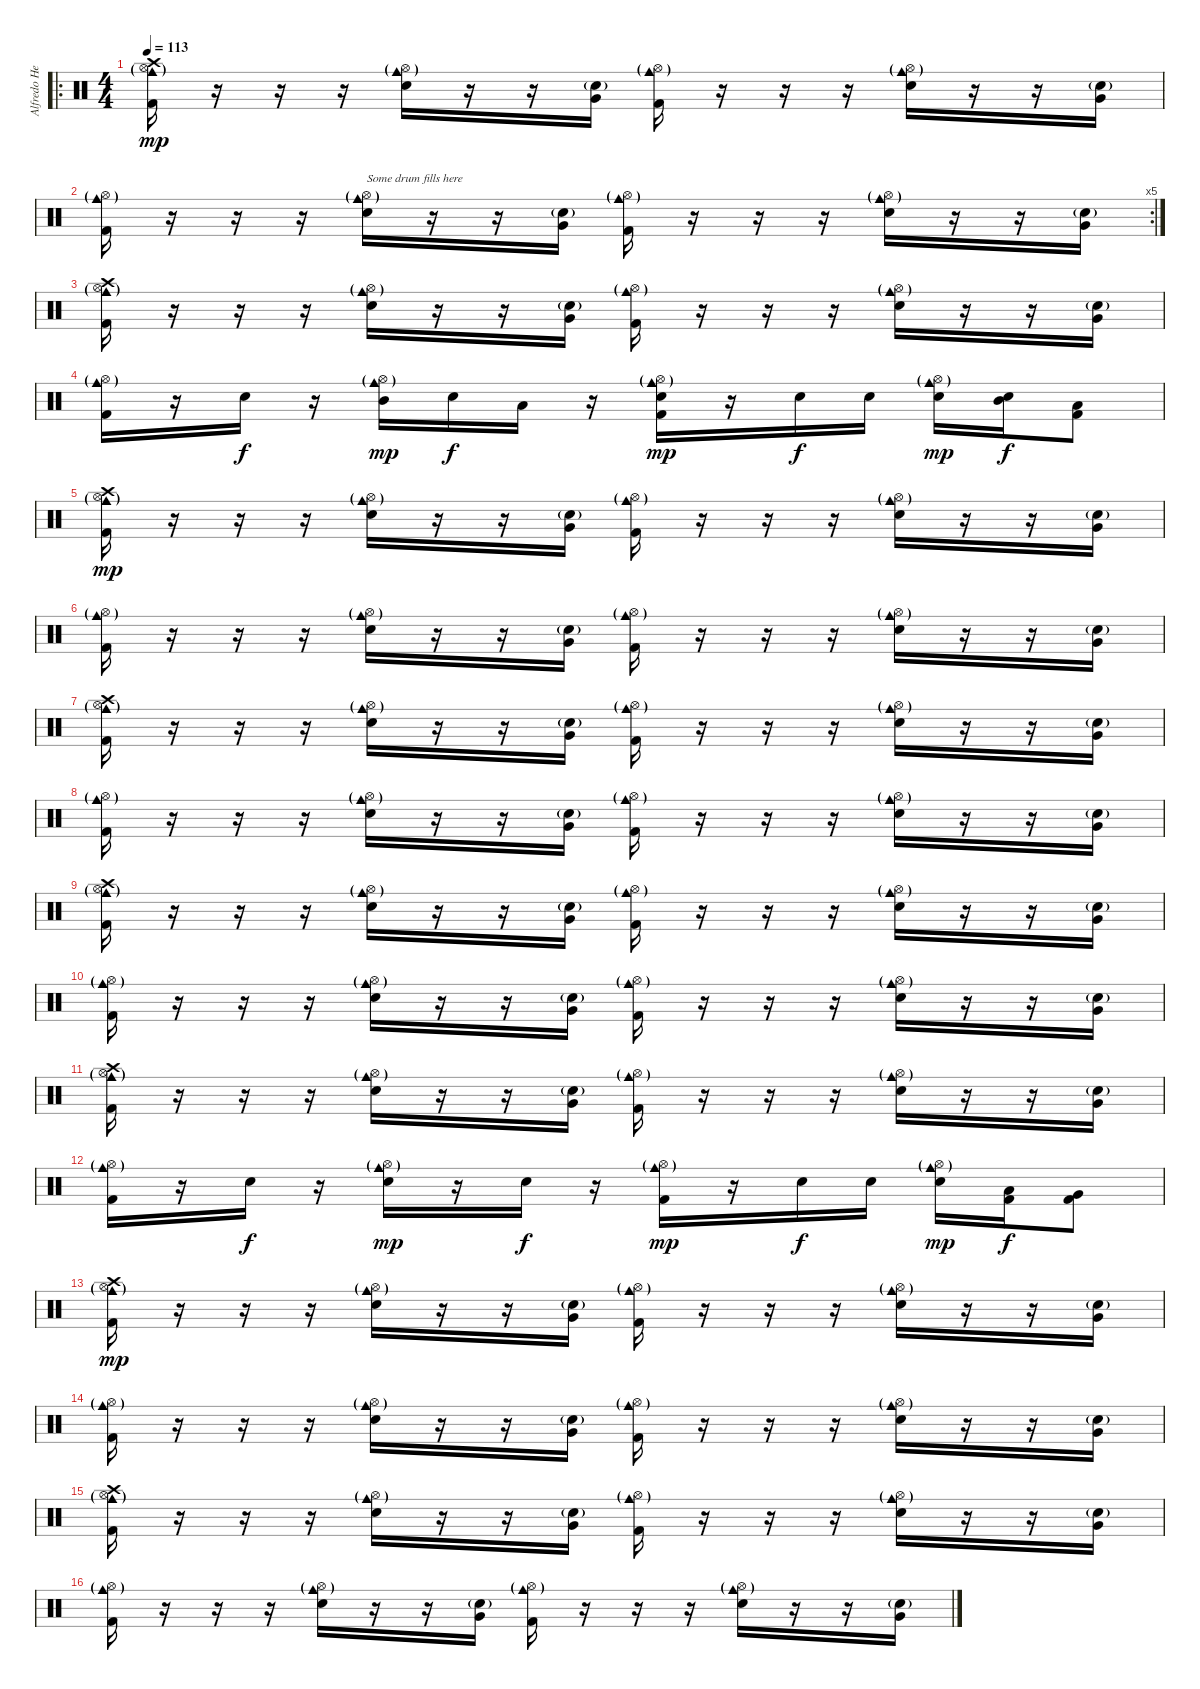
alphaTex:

\track ("Alfredo Hernández" "Alfredo He") {instrument percussion}
\staff {score}
\articulation defaults
\ro
\ts (4 4)
\tempo 113
\clef neutral
\ks c
("Crash high (hit)" "Cowbell medium (hit)"{g} "Hi-Hat (open)"{g} "Kick (hit) 2").16{dy mp} r.16 r.16 r.16 ("Electric Snare (hit)" "Cowbell medium (hit)"{g} "Hi-Hat (open)"{g}).16 r.16 r.16 ("Electric Snare (hit)"{g} "Very Low Tom (hit)").16 ("Cowbell medium (hit)"{g} "Hi-Hat (open)"{g} "Kick (hit) 2").16 r.16 r.16 r.16 ("Electric Snare (hit)" "Cowbell medium (hit)"{g} "Hi-Hat (open)"{g}).16 r.16 r.16 ("Electric Snare (hit)"{g} "Very Low Tom (hit)").16 |
\rc 5
("Cowbell medium (hit)"{g} "Hi-Hat (open)"{g} "Kick (hit) 2").16 r.16 r.16 r.16 ("Electric Snare (hit)" "Cowbell medium (hit)"{g} "Hi-Hat (open)"{g}).16{txt "Some drum fills here"} r.16 r.16 ("Electric Snare (hit)"{g} "Very Low Tom (hit)").16 ("Cowbell medium (hit)"{g} "Hi-Hat (open)"{g} "Kick (hit) 2").16 r.16 r.16 r.16 ("Electric Snare (hit)" "Cowbell medium (hit)"{g} "Hi-Hat (open)"{g}).16 r.16 r.16 ("Electric Snare (hit)"{g} "Very Low Tom (hit)").16 |
("Crash high (hit)" "Cowbell medium (hit)"{g} "Hi-Hat (open)"{g} "Kick (hit) 2").16 r.16 r.16 r.16 ("Electric Snare (hit)" "Cowbell medium (hit)"{g} "Hi-Hat (open)"{g}).16 r.16 r.16 ("Electric Snare (hit)"{g} "Very Low Tom (hit)").16 ("Cowbell medium (hit)"{g} "Hi-Hat (open)"{g} "Kick (hit) 2").16 r.16 r.16 r.16 ("Electric Snare (hit)" "Cowbell medium (hit)"{g} "Hi-Hat (open)"{g}).16 r.16 r.16 ("Electric Snare (hit)"{g} "Very Low Tom (hit)").16 |
("Cowbell medium (hit)"{g} "Hi-Hat (open)"{g} "Kick (hit) 2").16 r.16 "Electric Snare (hit)".16{dy f} r.16 ("Cowbell medium (hit)"{g} "Hi-Hat (open)"{g} "Mid Tom (hit)").16{dy mp} "Electric Snare (hit)".16{dy f} "Low Tom (hit)".16 r.16 ("Electric Snare (hit)" "Cowbell medium (hit)"{g} "Hi-Hat (open)"{g} "Kick (hit) 2").16{dy mp} r.16 "Electric Snare (hit)".16{dy f} "Electric Snare (hit)".16 ("Electric Snare (hit)" "Cowbell medium (hit)"{g} "Hi-Hat (open)"{g}).16{dy mp} ("Electric Snare (hit)" "Mid Tom (hit)").16{dy f} ("Low Tom (hit)" "Kick (hit) 2").8 |
("Crash high (hit)" "Cowbell medium (hit)"{g} "Hi-Hat (open)"{g} "Kick (hit) 2").16{dy mp} r.16 r.16 r.16 ("Electric Snare (hit)" "Cowbell medium (hit)"{g} "Hi-Hat (open)"{g}).16 r.16 r.16 ("Electric Snare (hit)"{g} "Very Low Tom (hit)").16 ("Cowbell medium (hit)"{g} "Hi-Hat (open)"{g} "Kick (hit) 2").16 r.16 r.16 r.16 ("Electric Snare (hit)" "Cowbell medium (hit)"{g} "Hi-Hat (open)"{g}).16 r.16 r.16 ("Electric Snare (hit)"{g} "Very Low Tom (hit)").16 |
("Cowbell medium (hit)"{g} "Hi-Hat (open)"{g} "Kick (hit) 2").16 r.16 r.16 r.16 ("Electric Snare (hit)" "Cowbell medium (hit)"{g} "Hi-Hat (open)"{g}).16 r.16 r.16 ("Electric Snare (hit)"{g} "Very Low Tom (hit)").16 ("Cowbell medium (hit)"{g} "Hi-Hat (open)"{g} "Kick (hit) 2").16 r.16 r.16 r.16 ("Electric Snare (hit)" "Cowbell medium (hit)"{g} "Hi-Hat (open)"{g}).16 r.16 r.16 ("Electric Snare (hit)"{g} "Very Low Tom (hit)").16 |
("Crash high (hit)" "Cowbell medium (hit)"{g} "Hi-Hat (open)"{g} "Kick (hit) 2").16 r.16 r.16 r.16 ("Electric Snare (hit)" "Cowbell medium (hit)"{g} "Hi-Hat (open)"{g}).16 r.16 r.16 ("Electric Snare (hit)"{g} "Very Low Tom (hit)").16 ("Cowbell medium (hit)"{g} "Hi-Hat (open)"{g} "Kick (hit) 2").16 r.16 r.16 r.16 ("Electric Snare (hit)" "Cowbell medium (hit)"{g} "Hi-Hat (open)"{g}).16 r.16 r.16 ("Electric Snare (hit)"{g} "Very Low Tom (hit)").16 |
("Cowbell medium (hit)"{g} "Hi-Hat (open)"{g} "Kick (hit) 2").16 r.16 r.16 r.16 ("Electric Snare (hit)" "Cowbell medium (hit)"{g} "Hi-Hat (open)"{g}).16 r.16 r.16 ("Electric Snare (hit)"{g} "Very Low Tom (hit)").16 ("Cowbell medium (hit)"{g} "Hi-Hat (open)"{g} "Kick (hit) 2").16 r.16 r.16 r.16 ("Electric Snare (hit)" "Cowbell medium (hit)"{g} "Hi-Hat (open)"{g}).16 r.16 r.16 ("Electric Snare (hit)"{g} "Very Low Tom (hit)").16 |
("Crash high (hit)" "Cowbell medium (hit)"{g} "Hi-Hat (open)"{g} "Kick (hit) 2").16 r.16 r.16 r.16 ("Electric Snare (hit)" "Cowbell medium (hit)"{g} "Hi-Hat (open)"{g}).16 r.16 r.16 ("Electric Snare (hit)"{g} "Very Low Tom (hit)").16 ("Cowbell medium (hit)"{g} "Hi-Hat (open)"{g} "Kick (hit) 2").16 r.16 r.16 r.16 ("Electric Snare (hit)" "Cowbell medium (hit)"{g} "Hi-Hat (open)"{g}).16 r.16 r.16 ("Electric Snare (hit)"{g} "Very Low Tom (hit)").16 |
("Cowbell medium (hit)"{g} "Hi-Hat (open)"{g} "Kick (hit) 2").16 r.16 r.16 r.16 ("Electric Snare (hit)" "Cowbell medium (hit)"{g} "Hi-Hat (open)"{g}).16 r.16 r.16 ("Electric Snare (hit)"{g} "Very Low Tom (hit)").16 ("Cowbell medium (hit)"{g} "Hi-Hat (open)"{g} "Kick (hit) 2").16 r.16 r.16 r.16 ("Electric Snare (hit)" "Cowbell medium (hit)"{g} "Hi-Hat (open)"{g}).16 r.16 r.16 ("Electric Snare (hit)"{g} "Very Low Tom (hit)").16 |
("Crash high (hit)" "Cowbell medium (hit)"{g} "Hi-Hat (open)"{g} "Kick (hit) 2").16 r.16 r.16 r.16 ("Electric Snare (hit)" "Cowbell medium (hit)"{g} "Hi-Hat (open)"{g}).16 r.16 r.16 ("Electric Snare (hit)"{g} "Very Low Tom (hit)").16 ("Cowbell medium (hit)"{g} "Hi-Hat (open)"{g} "Kick (hit) 2").16 r.16 r.16 r.16 ("Electric Snare (hit)" "Cowbell medium (hit)"{g} "Hi-Hat (open)"{g}).16 r.16 r.16 ("Electric Snare (hit)"{g} "Very Low Tom (hit)").16 |
("Cowbell medium (hit)"{g} "Hi-Hat (open)"{g} "Kick (hit) 2").16 r.16 "Electric Snare (hit)".16{dy f} r.16 ("Electric Snare (hit)" "Cowbell medium (hit)"{g} "Hi-Hat (open)"{g}).16{dy mp} r.16 "Electric Snare (hit)".16{dy f} r.16 ("Cowbell medium (hit)"{g} "Hi-Hat (open)"{g} "Kick (hit) 2").16{dy mp} r.16 "Electric Snare (hit)".16{dy f} "Electric Snare (hit)".16 ("Electric Snare (hit)" "Cowbell medium (hit)"{g} "Hi-Hat (open)"{g}).16{dy mp} ("Low Tom (hit)" "Kick (hit) 2").16{dy f} ("Very Low Tom (hit)" "Kick (hit) 2").8 |
("Crash high (hit)" "Cowbell medium (hit)"{g} "Hi-Hat (open)"{g} "Kick (hit) 2").16{dy mp} r.16 r.16 r.16 ("Electric Snare (hit)" "Cowbell medium (hit)"{g} "Hi-Hat (open)"{g}).16 r.16 r.16 ("Electric Snare (hit)"{g} "Very Low Tom (hit)").16 ("Cowbell medium (hit)"{g} "Hi-Hat (open)"{g} "Kick (hit) 2").16 r.16 r.16 r.16 ("Electric Snare (hit)" "Cowbell medium (hit)"{g} "Hi-Hat (open)"{g}).16 r.16 r.16 ("Electric Snare (hit)"{g} "Very Low Tom (hit)").16 |
("Cowbell medium (hit)"{g} "Hi-Hat (open)"{g} "Kick (hit) 2").16 r.16 r.16 r.16 ("Electric Snare (hit)" "Cowbell medium (hit)"{g} "Hi-Hat (open)"{g}).16 r.16 r.16 ("Electric Snare (hit)"{g} "Very Low Tom (hit)").16 ("Cowbell medium (hit)"{g} "Hi-Hat (open)"{g} "Kick (hit) 2").16 r.16 r.16 r.16 ("Electric Snare (hit)" "Cowbell medium (hit)"{g} "Hi-Hat (open)"{g}).16 r.16 r.16 ("Electric Snare (hit)"{g} "Very Low Tom (hit)").16 |
("Crash high (hit)" "Cowbell medium (hit)"{g} "Hi-Hat (open)"{g} "Kick (hit) 2").16 r.16 r.16 r.16 ("Electric Snare (hit)" "Cowbell medium (hit)"{g} "Hi-Hat (open)"{g}).16 r.16 r.16 ("Electric Snare (hit)"{g} "Very Low Tom (hit)").16 ("Cowbell medium (hit)"{g} "Hi-Hat (open)"{g} "Kick (hit) 2").16 r.16 r.16 r.16 ("Electric Snare (hit)" "Cowbell medium (hit)"{g} "Hi-Hat (open)"{g}).16 r.16 r.16 ("Electric Snare (hit)"{g} "Very Low Tom (hit)").16 |
("Cowbell medium (hit)"{g} "Hi-Hat (open)"{g} "Kick (hit) 2").16 r.16 r.16 r.16 ("Electric Snare (hit)" "Cowbell medium (hit)"{g} "Hi-Hat (open)"{g}).16 r.16 r.16 ("Electric Snare (hit)"{g} "Very Low Tom (hit)").16 ("Cowbell medium (hit)"{g} "Hi-Hat (open)"{g} "Kick (hit) 2").16 r.16 r.16 r.16 ("Electric Snare (hit)" "Cowbell medium (hit)"{g} "Hi-Hat (open)"{g}).16 r.16 r.16 ("Electric Snare (hit)"{g} "Very Low Tom (hit)").16
